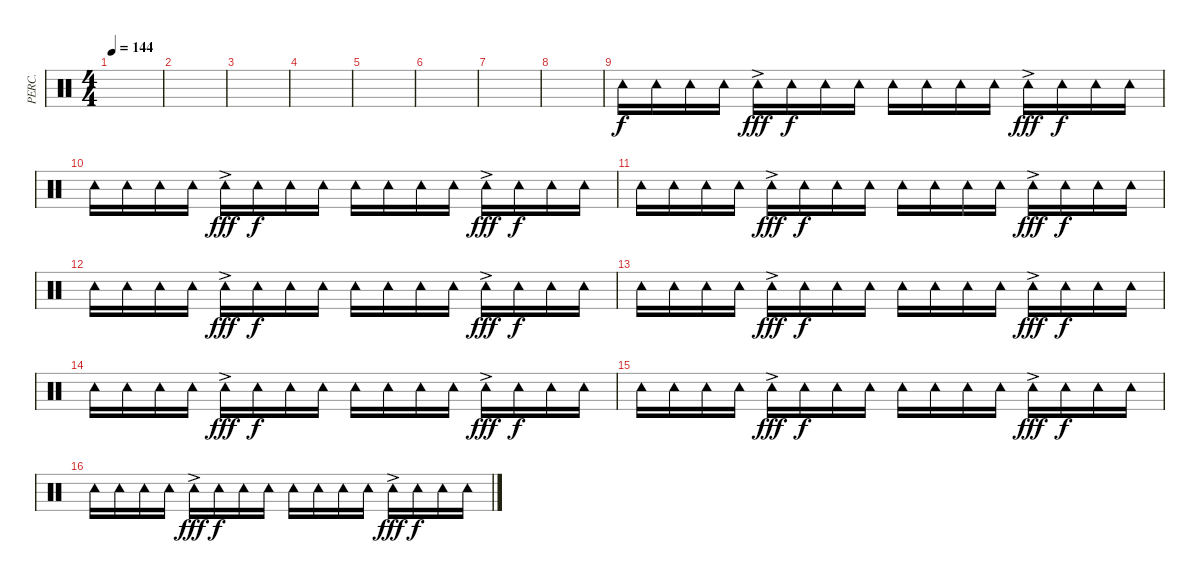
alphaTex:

\track ("PERC." "PERC.") {instrument percussion}
\staff {score}
\articulation defaults
\ts (4 4)
\tempo 144
\clef neutral
\ks c
|
|
|
|
|
|
|
|
"Tambourine (hit)".16 "Tambourine (hit)".16 "Tambourine (hit)".16 "Tambourine (hit)".16 "Tambourine (hit)"{ac}.16{dy fff} "Tambourine (hit)".16{dy f} "Tambourine (hit)".16 "Tambourine (hit)".16 "Tambourine (hit)".16 "Tambourine (hit)".16 "Tambourine (hit)".16 "Tambourine (hit)".16 "Tambourine (hit)"{ac}.16{dy fff} "Tambourine (hit)".16{dy f} "Tambourine (hit)".16 "Tambourine (hit)".16 |
"Tambourine (hit)".16 "Tambourine (hit)".16 "Tambourine (hit)".16 "Tambourine (hit)".16 "Tambourine (hit)"{ac}.16{dy fff} "Tambourine (hit)".16{dy f} "Tambourine (hit)".16 "Tambourine (hit)".16 "Tambourine (hit)".16 "Tambourine (hit)".16 "Tambourine (hit)".16 "Tambourine (hit)".16 "Tambourine (hit)"{ac}.16{dy fff} "Tambourine (hit)".16{dy f} "Tambourine (hit)".16 "Tambourine (hit)".16 |
"Tambourine (hit)".16 "Tambourine (hit)".16 "Tambourine (hit)".16 "Tambourine (hit)".16 "Tambourine (hit)"{ac}.16{dy fff} "Tambourine (hit)".16{dy f} "Tambourine (hit)".16 "Tambourine (hit)".16 "Tambourine (hit)".16 "Tambourine (hit)".16 "Tambourine (hit)".16 "Tambourine (hit)".16 "Tambourine (hit)"{ac}.16{dy fff} "Tambourine (hit)".16{dy f} "Tambourine (hit)".16 "Tambourine (hit)".16 |
"Tambourine (hit)".16 "Tambourine (hit)".16 "Tambourine (hit)".16 "Tambourine (hit)".16 "Tambourine (hit)"{ac}.16{dy fff} "Tambourine (hit)".16{dy f} "Tambourine (hit)".16 "Tambourine (hit)".16 "Tambourine (hit)".16 "Tambourine (hit)".16 "Tambourine (hit)".16 "Tambourine (hit)".16 "Tambourine (hit)"{ac}.16{dy fff} "Tambourine (hit)".16{dy f} "Tambourine (hit)".16 "Tambourine (hit)".16 |
"Tambourine (hit)".16 "Tambourine (hit)".16 "Tambourine (hit)".16 "Tambourine (hit)".16 "Tambourine (hit)"{ac}.16{dy fff} "Tambourine (hit)".16{dy f} "Tambourine (hit)".16 "Tambourine (hit)".16 "Tambourine (hit)".16 "Tambourine (hit)".16 "Tambourine (hit)".16 "Tambourine (hit)".16 "Tambourine (hit)"{ac}.16{dy fff} "Tambourine (hit)".16{dy f} "Tambourine (hit)".16 "Tambourine (hit)".16 |
"Tambourine (hit)".16 "Tambourine (hit)".16 "Tambourine (hit)".16 "Tambourine (hit)".16 "Tambourine (hit)"{ac}.16{dy fff} "Tambourine (hit)".16{dy f} "Tambourine (hit)".16 "Tambourine (hit)".16 "Tambourine (hit)".16 "Tambourine (hit)".16 "Tambourine (hit)".16 "Tambourine (hit)".16 "Tambourine (hit)"{ac}.16{dy fff} "Tambourine (hit)".16{dy f} "Tambourine (hit)".16 "Tambourine (hit)".16 |
"Tambourine (hit)".16 "Tambourine (hit)".16 "Tambourine (hit)".16 "Tambourine (hit)".16 "Tambourine (hit)"{ac}.16{dy fff} "Tambourine (hit)".16{dy f} "Tambourine (hit)".16 "Tambourine (hit)".16 "Tambourine (hit)".16 "Tambourine (hit)".16 "Tambourine (hit)".16 "Tambourine (hit)".16 "Tambourine (hit)"{ac}.16{dy fff} "Tambourine (hit)".16{dy f} "Tambourine (hit)".16 "Tambourine (hit)".16 |
"Tambourine (hit)".16 "Tambourine (hit)".16 "Tambourine (hit)".16 "Tambourine (hit)".16 "Tambourine (hit)"{ac}.16{dy fff} "Tambourine (hit)".16{dy f} "Tambourine (hit)".16 "Tambourine (hit)".16 "Tambourine (hit)".16 "Tambourine (hit)".16 "Tambourine (hit)".16 "Tambourine (hit)".16 "Tambourine (hit)"{ac}.16{dy fff} "Tambourine (hit)".16{dy f} "Tambourine (hit)".16 "Tambourine (hit)".16
